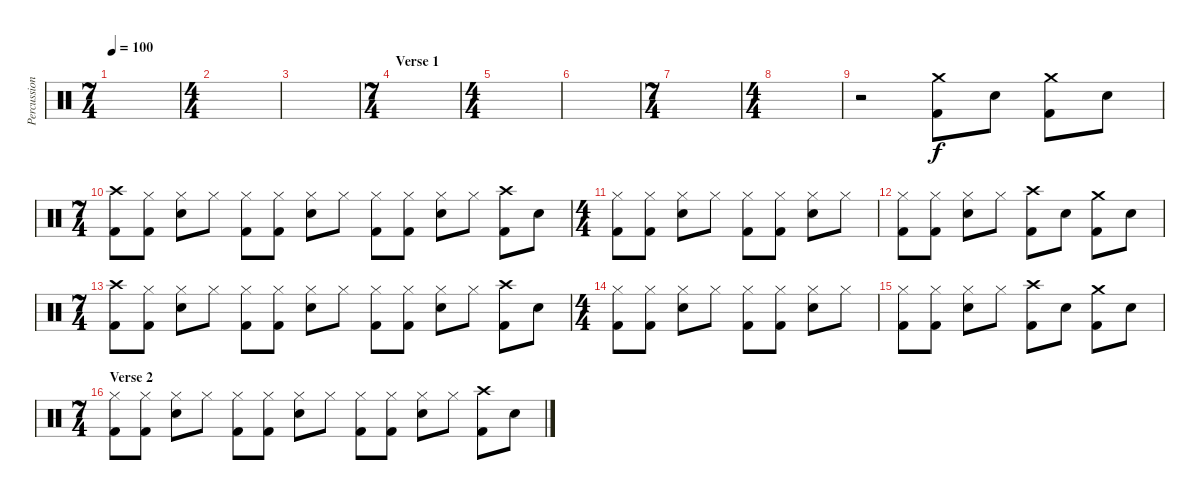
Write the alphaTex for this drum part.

\track ("Percussion" "Percussion") {instrument percussion}
\staff {score}
\articulation defaults
\ts (7 4)
\tempo 100
\clef neutral
\ks c
|
\ts (4 4)
|
|
\ts (7 4)
\section ("" "Verse 1")
|
\ts (4 4)
|
|
\ts (7 4)
|
\ts (4 4)
|
r.2 ("Crash medium (hit)" "Kick (hit) 2").8 "Electric Snare (hit)".8 ("Crash medium (hit)" "Kick (hit) 2").8 "Electric Snare (hit)".8 |
\ts (7 4)
("Crash high (hit)" "Kick (hit) 2").8 ("Hi-Hat (closed)" "Kick (hit) 2").8 ("Hi-Hat (closed)" "Electric Snare (hit)").8 "Hi-Hat (closed)".8 ("Hi-Hat (closed)" "Kick (hit) 2").8 ("Hi-Hat (closed)" "Kick (hit) 2").8 ("Hi-Hat (closed)" "Electric Snare (hit)").8 "Hi-Hat (closed)".8 ("Hi-Hat (closed)" "Kick (hit) 2").8 ("Hi-Hat (closed)" "Kick (hit) 2").8 ("Hi-Hat (closed)" "Electric Snare (hit)").8 "Hi-Hat (closed)".8 ("Crash high (hit)" "Kick (hit) 2").8 "Electric Snare (hit)".8 |
\ts (4 4)
("Hi-Hat (closed)" "Kick (hit) 2").8 ("Hi-Hat (closed)" "Kick (hit) 2").8 ("Hi-Hat (closed)" "Electric Snare (hit)").8 "Hi-Hat (closed)".8 ("Hi-Hat (closed)" "Kick (hit) 2").8 ("Hi-Hat (closed)" "Kick (hit) 2").8 ("Hi-Hat (closed)" "Electric Snare (hit)").8 "Hi-Hat (closed)".8 |
("Hi-Hat (closed)" "Kick (hit) 2").8 ("Hi-Hat (closed)" "Kick (hit) 2").8 ("Hi-Hat (closed)" "Electric Snare (hit)").8 "Hi-Hat (closed)".8 ("Crash high (hit)" "Kick (hit) 2").8 "Electric Snare (hit)".8 ("Crash medium (hit)" "Kick (hit) 2").8 "Electric Snare (hit)".8 |
\ts (7 4)
("Crash high (hit)" "Kick (hit) 2").8 ("Hi-Hat (closed)" "Kick (hit) 2").8 ("Hi-Hat (closed)" "Electric Snare (hit)").8 "Hi-Hat (closed)".8 ("Hi-Hat (closed)" "Kick (hit) 2").8 ("Hi-Hat (closed)" "Kick (hit) 2").8 ("Hi-Hat (closed)" "Electric Snare (hit)").8 "Hi-Hat (closed)".8 ("Hi-Hat (closed)" "Kick (hit) 2").8 ("Hi-Hat (closed)" "Kick (hit) 2").8 ("Hi-Hat (closed)" "Electric Snare (hit)").8 "Hi-Hat (closed)".8 ("Crash high (hit)" "Kick (hit) 2").8 "Electric Snare (hit)".8 |
\ts (4 4)
("Hi-Hat (closed)" "Kick (hit) 2").8 ("Hi-Hat (closed)" "Kick (hit) 2").8 ("Hi-Hat (closed)" "Electric Snare (hit)").8 "Hi-Hat (closed)".8 ("Hi-Hat (closed)" "Kick (hit) 2").8 ("Hi-Hat (closed)" "Kick (hit) 2").8 ("Hi-Hat (closed)" "Electric Snare (hit)").8 "Hi-Hat (closed)".8 |
("Hi-Hat (closed)" "Kick (hit) 2").8 ("Hi-Hat (closed)" "Kick (hit) 2").8 ("Hi-Hat (closed)" "Electric Snare (hit)").8 "Hi-Hat (closed)".8 ("Crash high (hit)" "Kick (hit) 2").8 "Electric Snare (hit)".8 ("Crash medium (hit)" "Kick (hit) 2").8 "Electric Snare (hit)".8 |
\ts (7 4)
\section ("" "Verse 2")
("Hi-Hat (closed)" "Kick (hit) 2").8 ("Hi-Hat (closed)" "Kick (hit) 2").8 ("Hi-Hat (closed)" "Electric Snare (hit)").8 "Hi-Hat (closed)".8 ("Hi-Hat (closed)" "Kick (hit) 2").8 ("Hi-Hat (closed)" "Kick (hit) 2").8 ("Hi-Hat (closed)" "Electric Snare (hit)").8 "Hi-Hat (closed)".8 ("Hi-Hat (closed)" "Kick (hit) 2").8 ("Hi-Hat (closed)" "Kick (hit) 2").8 ("Hi-Hat (closed)" "Electric Snare (hit)").8 "Hi-Hat (closed)".8 ("Crash high (hit)" "Kick (hit) 2").8 "Electric Snare (hit)".8
